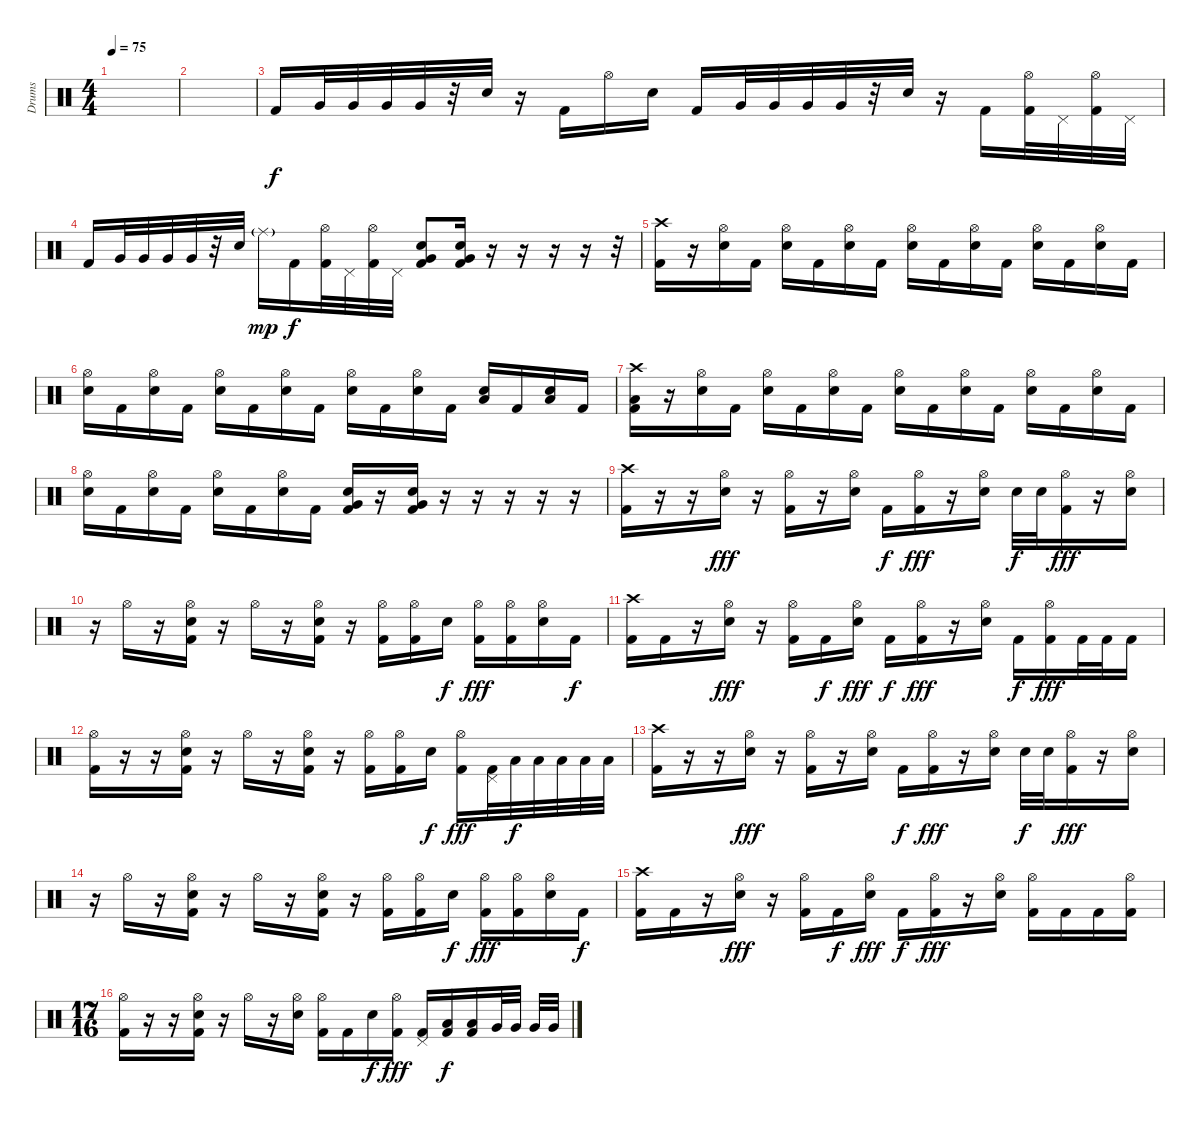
\track ("Drums" "Drums") {instrument percussion}
\staff {score}
\articulation defaults
\ts (4 4)
\tempo 75
\clef neutral
\ks c
|
|
"Kick (hit) 2".16 "Very Low Tom (hit)".32 "Very Low Tom (hit)".32 "Very Low Tom (hit)".32 "Very Low Tom (hit)".32 r.32 "Electric Snare (hit)".32 r.16 "Kick (hit) 2".16 "Hi-Hat (open)".16 "Electric Snare (hit)".16 "Kick (hit) 2".16 "Very Low Tom (hit)".32 "Very Low Tom (hit)".32 "Very Low Tom (hit)".32 "Very Low Tom (hit)".32 r.32 "Electric Snare (hit)".32 r.16 "Kick (hit) 2".16 ("Hi-Hat (open)" "Kick (hit) 2").32 "Pedal Hi-Hat (hit)"{x}.32 ("Hi-Hat (open)" "Kick (hit) 2").32 "Pedal Hi-Hat (hit)"{x}.32 |
"Kick (hit) 2".16 "Very Low Tom (hit)".32 "Very Low Tom (hit)".32 "Very Low Tom (hit)".32 "Very Low Tom (hit)".32 r.32 "Electric Snare (hit)".32 "Ride (middle)"{g}.16{dy mp} "Kick (hit) 2".16{dy f} ("Hi-Hat (open)" "Kick (hit) 2").32 "Pedal Hi-Hat (hit)".32 ("Hi-Hat (open)" "Kick (hit) 2").32 "Pedal Hi-Hat (hit)".32 ("Electric Snare (hit)" "Very Low Tom (hit)" "Kick (hit) 2").8 ("Electric Snare (hit)" "Very Low Tom (hit)" "Kick (hit) 2").16 r.16 r.16 r.16 r.16 r.32 |
("Crash high (hit)" "Kick (hit) 2").16 r.16 ("Hi-Hat (open)" "Electric Snare (hit)").16 "Kick (hit) 2".16 ("Hi-Hat (open)" "Electric Snare (hit)").16 "Kick (hit) 2".16 ("Hi-Hat (open)" "Electric Snare (hit)").16 "Kick (hit) 2".16 ("Hi-Hat (open)" "Electric Snare (hit)").16 "Kick (hit) 2".16 ("Hi-Hat (open)" "Electric Snare (hit)").16 "Kick (hit) 2".16 ("Hi-Hat (open)" "Electric Snare (hit)").16 "Kick (hit) 2".16 ("Hi-Hat (open)" "Electric Snare (hit)").16 "Kick (hit) 2".16 |
("Hi-Hat (open)" "Electric Snare (hit)").16 "Kick (hit) 2".16 ("Hi-Hat (open)" "Electric Snare (hit)").16 "Kick (hit) 2".16 ("Hi-Hat (open)" "Electric Snare (hit)").16 "Kick (hit) 2".16 ("Hi-Hat (open)" "Electric Snare (hit)").16 "Kick (hit) 2".16 ("Hi-Hat (open)" "Electric Snare (hit)").16 "Kick (hit) 2".16 ("Hi-Hat (open)" "Electric Snare (hit)").16 "Kick (hit) 2".16 ("Low Tom (hit)" "Electric Snare (hit)").16 "Kick (hit) 2".16 ("Low Tom (hit)" "Electric Snare (hit)").16 "Kick (hit) 2".16 |
("Crash high (hit)" "Low Tom (hit)" "Kick (hit) 2").16 r.16 ("Hi-Hat (open)" "Electric Snare (hit)").16 "Kick (hit) 2".16 ("Hi-Hat (open)" "Electric Snare (hit)").16 "Kick (hit) 2".16 ("Hi-Hat (open)" "Electric Snare (hit)").16 "Kick (hit) 2".16 ("Hi-Hat (open)" "Electric Snare (hit)").16 "Kick (hit) 2".16 ("Hi-Hat (open)" "Electric Snare (hit)").16 "Kick (hit) 2".16 ("Hi-Hat (open)" "Electric Snare (hit)").16 "Kick (hit) 2".16 ("Hi-Hat (open)" "Electric Snare (hit)").16 "Kick (hit) 2".16 |
("Hi-Hat (open)" "Electric Snare (hit)").16 "Kick (hit) 2".16 ("Hi-Hat (open)" "Electric Snare (hit)").16 "Kick (hit) 2".16 ("Hi-Hat (open)" "Electric Snare (hit)").16 "Kick (hit) 2".16 ("Hi-Hat (open)" "Electric Snare (hit)").16 "Kick (hit) 2".16 ("Electric Snare (hit)" "Very Low Tom (hit)" "Kick (hit) 2").16 r.16 ("Electric Snare (hit)" "Very Low Tom (hit)" "Kick (hit) 2").16 r.16 r.16 r.16 r.16 r.16 |
("Crash high (hit)" "Kick (hit) 2").16 r.16 r.16 ("Hi-Hat (open)" "Electric Snare (hit)").16{dy fff} r.16 ("Hi-Hat (open)" "Kick (hit) 2").16 r.16 ("Hi-Hat (open)" "Electric Snare (hit)").16 "Kick (hit) 2".16{dy f} ("Hi-Hat (open)" "Kick (hit) 2").16{dy fff} r.16 ("Hi-Hat (open)" "Electric Snare (hit)").16 "Electric Snare (hit)".32{dy f} "Electric Snare (hit)".32 ("Hi-Hat (open)" "Kick (hit) 2").16{dy fff} r.16 ("Hi-Hat (open)" "Electric Snare (hit)").16 |
r.16 "Hi-Hat (open)".16 r.16 ("Hi-Hat (open)" "Electric Snare (hit)" "Kick (hit) 2").16 r.16 "Hi-Hat (open)".16 r.16 ("Hi-Hat (open)" "Electric Snare (hit)" "Kick (hit) 2").16 r.16 ("Hi-Hat (open)" "Kick (hit) 2").16 ("Hi-Hat (open)" "Kick (hit) 2").16 "Electric Snare (hit)".16{dy f} ("Hi-Hat (open)" "Kick (hit) 2").16{dy fff} ("Hi-Hat (open)" "Kick (hit) 2").16 ("Hi-Hat (open)" "Electric Snare (hit)").16 "Kick (hit) 2".16{dy f} |
("Crash high (hit)" "Kick (hit) 2").16 "Kick (hit) 2".16 r.16 ("Hi-Hat (open)" "Electric Snare (hit)").16{dy fff} r.16 ("Hi-Hat (open)" "Kick (hit) 2").16 "Kick (hit) 2".16{dy f} ("Hi-Hat (open)" "Electric Snare (hit)").16{dy fff} "Kick (hit) 2".16{dy f} ("Hi-Hat (open)" "Kick (hit) 2").16{dy fff} r.16 ("Hi-Hat (open)" "Electric Snare (hit)").16 "Kick (hit) 2".16{dy f} ("Hi-Hat (open)" "Kick (hit) 2").16{dy fff} "Kick (hit) 2".32 "Kick (hit) 2".32 "Kick (hit) 2".16 |
("Hi-Hat (open)" "Kick (hit) 2").16 r.16 r.16 ("Hi-Hat (open)" "Electric Snare (hit)" "Kick (hit) 2").16 r.16 "Hi-Hat (open)".16 r.16 ("Hi-Hat (open)" "Electric Snare (hit)" "Kick (hit) 2").16 r.16 ("Hi-Hat (open)" "Kick (hit) 2").16 ("Hi-Hat (open)" "Kick (hit) 2").16 "Electric Snare (hit)".16{dy f} ("Hi-Hat (open)" "Kick (hit) 2").16{dy fff} ("Pedal Hi-Hat (hit)" "Kick (hit) 2").32 "Low Tom (hit)".32{dy f} "Low Tom (hit)".32 "Low Tom (hit)".32 "Low Tom (hit)".32 "Low Tom (hit)".32 |
("Crash high (hit)" "Kick (hit) 2").16 r.16 r.16 ("Hi-Hat (open)" "Electric Snare (hit)").16{dy fff} r.16 ("Hi-Hat (open)" "Kick (hit) 2").16 r.16 ("Hi-Hat (open)" "Electric Snare (hit)").16 "Kick (hit) 2".16{dy f} ("Hi-Hat (open)" "Kick (hit) 2").16{dy fff} r.16 ("Hi-Hat (open)" "Electric Snare (hit)").16 "Electric Snare (hit)".32{dy f} "Electric Snare (hit)".32 ("Hi-Hat (open)" "Kick (hit) 2").16{dy fff} r.16 ("Hi-Hat (open)" "Electric Snare (hit)").16 |
r.16 "Hi-Hat (open)".16 r.16 ("Hi-Hat (open)" "Electric Snare (hit)" "Kick (hit) 2").16 r.16 "Hi-Hat (open)".16 r.16 ("Hi-Hat (open)" "Electric Snare (hit)" "Kick (hit) 2").16 r.16 ("Hi-Hat (open)" "Kick (hit) 2").16 ("Hi-Hat (open)" "Kick (hit) 2").16 "Electric Snare (hit)".16{dy f} ("Hi-Hat (open)" "Kick (hit) 2").16{dy fff} ("Hi-Hat (open)" "Kick (hit) 2").16 ("Hi-Hat (open)" "Electric Snare (hit)").16 "Kick (hit) 2".16{dy f} |
("Crash high (hit)" "Kick (hit) 2").16 "Kick (hit) 2".16 r.16 ("Hi-Hat (open)" "Electric Snare (hit)").16{dy fff} r.16 ("Hi-Hat (open)" "Kick (hit) 2").16 "Kick (hit) 2".16{dy f} ("Hi-Hat (open)" "Electric Snare (hit)").16{dy fff} "Kick (hit) 2".16{dy f} ("Hi-Hat (open)" "Kick (hit) 2").16{dy fff} r.16 ("Hi-Hat (open)" "Electric Snare (hit)").16 ("Hi-Hat (open)" "Kick (hit) 2").16 "Kick (hit) 2".16 "Kick (hit) 2".16 ("Hi-Hat (open)" "Kick (hit) 2").16 |
\ts (17 16)
("Hi-Hat (open)" "Kick (hit) 2").16 r.16 r.16 ("Hi-Hat (open)" "Electric Snare (hit)" "Kick (hit) 2").16 r.16 "Hi-Hat (open)".16 r.16 ("Hi-Hat (open)" "Electric Snare (hit)").16 ("Hi-Hat (open)" "Kick (hit) 2").16 "Kick (hit) 2".16 "Electric Snare (hit)".16{dy f} ("Hi-Hat (open)" "Kick (hit) 2").16{dy fff} ("Pedal Hi-Hat (hit)" "Kick (hit) 2").16 ("Low Tom (hit)" "Kick (hit) 2").16{dy f} ("Low Tom (hit)" "Kick (hit) 2").16 "Very Low Tom (hit)".32 "Very Low Tom (hit)".32 "Very Low Tom (hit)".32 "Very Low Tom (hit)".32
